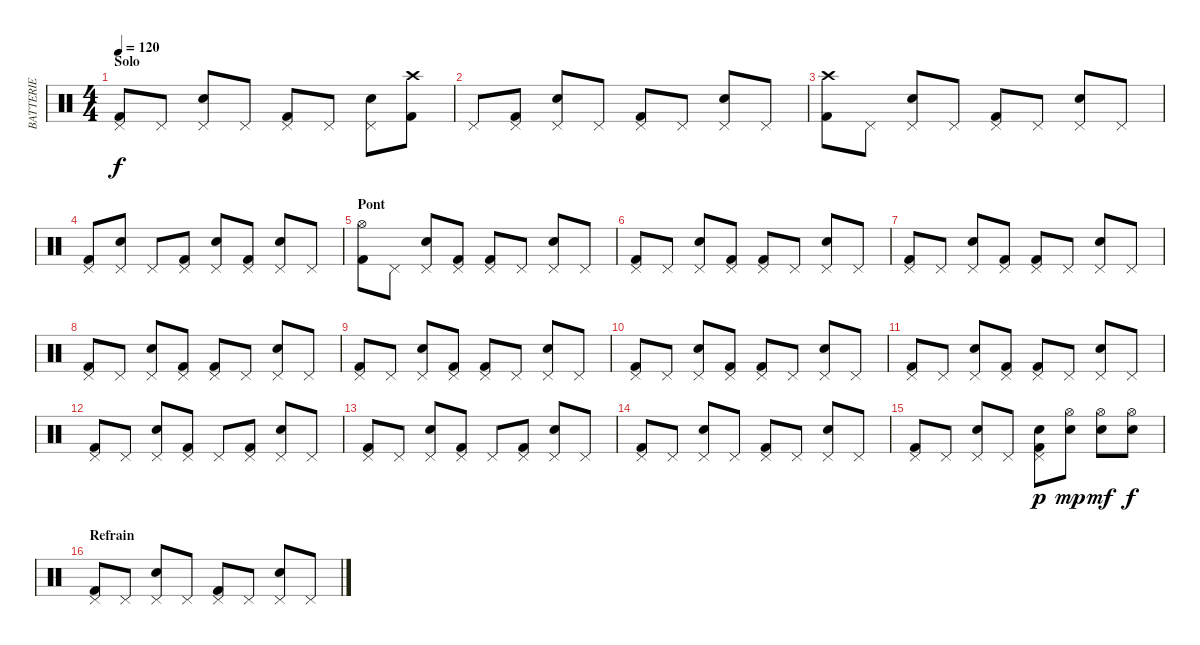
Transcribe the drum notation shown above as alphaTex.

\track ("BATTERIE" "BATTERIE") {instrument percussion}
\staff {score}
\articulation defaults
\ts (4 4)
\section ("" "Solo")
\tempo 120
\clef neutral
\ks c
("Pedal Hi-Hat (hit)" "Kick (hit) 2").8{dy f} "Pedal Hi-Hat (hit)".8 ("Pedal Hi-Hat (hit)" "Snare (hit) 2").8 "Pedal Hi-Hat (hit)".8 ("Pedal Hi-Hat (hit)" "Kick (hit) 2").8 "Pedal Hi-Hat (hit)".8 ("Pedal Hi-Hat (hit)" "Snare (hit) 2").8 ("Crash high (hit)" "Kick (hit) 2").8 |
"Pedal Hi-Hat (hit)".8 ("Pedal Hi-Hat (hit)" "Kick (hit) 2").8 ("Pedal Hi-Hat (hit)" "Snare (hit) 2").8 "Pedal Hi-Hat (hit)".8 ("Pedal Hi-Hat (hit)" "Kick (hit) 2").8 "Pedal Hi-Hat (hit)".8 ("Pedal Hi-Hat (hit)" "Snare (hit) 2").8 "Pedal Hi-Hat (hit)".8 |
("Crash high (hit)" "Kick (hit) 2").8 "Pedal Hi-Hat (hit)".8 ("Pedal Hi-Hat (hit)" "Snare (hit) 2").8 "Pedal Hi-Hat (hit)".8 ("Pedal Hi-Hat (hit)" "Kick (hit) 2").8 "Pedal Hi-Hat (hit)".8 ("Pedal Hi-Hat (hit)" "Snare (hit) 2").8 "Pedal Hi-Hat (hit)".8 |
("Pedal Hi-Hat (hit)" "Kick (hit) 2").8 ("Pedal Hi-Hat (hit)" "Snare (hit) 2").8 "Pedal Hi-Hat (hit)".8 ("Pedal Hi-Hat (hit)" "Kick (hit) 2").8 ("Pedal Hi-Hat (hit)" "Snare (hit) 2").8 ("Pedal Hi-Hat (hit)" "Kick (hit) 2").8 ("Pedal Hi-Hat (hit)" "Snare (hit) 2").8 "Pedal Hi-Hat (hit)".8 |
\section ("" "Pont")
("Hi-Hat (open)" "Kick (hit) 2").8 "Pedal Hi-Hat (hit)".8 ("Pedal Hi-Hat (hit)" "Snare (hit) 2").8 ("Pedal Hi-Hat (hit)" "Kick (hit) 2").8 ("Pedal Hi-Hat (hit)" "Kick (hit) 2").8 "Pedal Hi-Hat (hit)".8 ("Pedal Hi-Hat (hit)" "Snare (hit) 2").8 "Pedal Hi-Hat (hit)".8 |
("Pedal Hi-Hat (hit)" "Kick (hit) 2").8 "Pedal Hi-Hat (hit)".8 ("Pedal Hi-Hat (hit)" "Snare (hit) 2").8 ("Pedal Hi-Hat (hit)" "Kick (hit) 2").8 ("Pedal Hi-Hat (hit)" "Kick (hit) 2").8 "Pedal Hi-Hat (hit)".8 ("Pedal Hi-Hat (hit)" "Snare (hit) 2").8 "Pedal Hi-Hat (hit)".8 |
("Pedal Hi-Hat (hit)" "Kick (hit) 2").8 "Pedal Hi-Hat (hit)".8 ("Pedal Hi-Hat (hit)" "Snare (hit) 2").8 ("Pedal Hi-Hat (hit)" "Kick (hit) 2").8 ("Pedal Hi-Hat (hit)" "Kick (hit) 2").8 "Pedal Hi-Hat (hit)".8 ("Pedal Hi-Hat (hit)" "Snare (hit) 2").8 "Pedal Hi-Hat (hit)".8 |
("Pedal Hi-Hat (hit)" "Kick (hit) 2").8 "Pedal Hi-Hat (hit)".8 ("Pedal Hi-Hat (hit)" "Snare (hit) 2").8 ("Pedal Hi-Hat (hit)" "Kick (hit) 2").8 ("Pedal Hi-Hat (hit)" "Kick (hit) 2").8 "Pedal Hi-Hat (hit)".8 ("Pedal Hi-Hat (hit)" "Snare (hit) 2").8 "Pedal Hi-Hat (hit)".8 |
("Pedal Hi-Hat (hit)" "Kick (hit) 2").8 "Pedal Hi-Hat (hit)".8 ("Pedal Hi-Hat (hit)" "Snare (hit) 2").8 ("Pedal Hi-Hat (hit)" "Kick (hit) 2").8 ("Pedal Hi-Hat (hit)" "Kick (hit) 2").8 "Pedal Hi-Hat (hit)".8 ("Pedal Hi-Hat (hit)" "Snare (hit) 2").8 "Pedal Hi-Hat (hit)".8 |
("Pedal Hi-Hat (hit)" "Kick (hit) 2").8 "Pedal Hi-Hat (hit)".8 ("Pedal Hi-Hat (hit)" "Snare (hit) 2").8 ("Pedal Hi-Hat (hit)" "Kick (hit) 2").8 ("Pedal Hi-Hat (hit)" "Kick (hit) 2").8 "Pedal Hi-Hat (hit)".8 ("Pedal Hi-Hat (hit)" "Snare (hit) 2").8 "Pedal Hi-Hat (hit)".8 |
("Pedal Hi-Hat (hit)" "Kick (hit) 2").8 "Pedal Hi-Hat (hit)".8 ("Pedal Hi-Hat (hit)" "Snare (hit) 2").8 ("Pedal Hi-Hat (hit)" "Kick (hit) 2").8 ("Pedal Hi-Hat (hit)" "Kick (hit) 2").8 "Pedal Hi-Hat (hit)".8 ("Pedal Hi-Hat (hit)" "Snare (hit) 2").8 "Pedal Hi-Hat (hit)".8 |
("Pedal Hi-Hat (hit)" "Kick (hit) 2").8 "Pedal Hi-Hat (hit)".8 ("Pedal Hi-Hat (hit)" "Snare (hit) 2").8 ("Pedal Hi-Hat (hit)" "Kick (hit) 2").8 "Pedal Hi-Hat (hit)".8 ("Pedal Hi-Hat (hit)" "Kick (hit) 2").8 ("Pedal Hi-Hat (hit)" "Snare (hit) 2").8 "Pedal Hi-Hat (hit)".8 |
("Pedal Hi-Hat (hit)" "Kick (hit) 2").8 "Pedal Hi-Hat (hit)".8 ("Pedal Hi-Hat (hit)" "Snare (hit) 2").8 ("Pedal Hi-Hat (hit)" "Kick (hit) 2").8 "Pedal Hi-Hat (hit)".8 ("Pedal Hi-Hat (hit)" "Kick (hit) 2").8 ("Pedal Hi-Hat (hit)" "Snare (hit) 2").8 "Pedal Hi-Hat (hit)".8 |
("Pedal Hi-Hat (hit)" "Kick (hit) 2").8 "Pedal Hi-Hat (hit)".8 ("Pedal Hi-Hat (hit)" "Snare (hit) 2").8 "Pedal Hi-Hat (hit)".8 ("Pedal Hi-Hat (hit)" "Kick (hit) 2").8 "Pedal Hi-Hat (hit)".8 ("Pedal Hi-Hat (hit)" "Snare (hit) 2").8 "Pedal Hi-Hat (hit)".8 |
("Pedal Hi-Hat (hit)" "Kick (hit) 2").8 "Pedal Hi-Hat (hit)".8 ("Pedal Hi-Hat (hit)" "Snare (hit) 2").8 "Pedal Hi-Hat (hit)".8 ("Pedal Hi-Hat (hit)" "Snare (hit) 2" "Kick (hit) 2").8{dy p} ("Hi-Hat (open)" "Snare (hit) 2").8{dy mp} ("Hi-Hat (open)" "Snare (hit) 2").8{dy mf} ("Hi-Hat (open)" "Snare (hit) 2").8{dy f} |
\section ("" "Refrain")
("Pedal Hi-Hat (hit)" "Kick (hit) 2").8 "Pedal Hi-Hat (hit)".8 ("Pedal Hi-Hat (hit)" "Snare (hit) 2").8 "Pedal Hi-Hat (hit)".8 ("Pedal Hi-Hat (hit)" "Kick (hit) 2").8 "Pedal Hi-Hat (hit)".8 ("Pedal Hi-Hat (hit)" "Snare (hit) 2").8 "Pedal Hi-Hat (hit)".8
